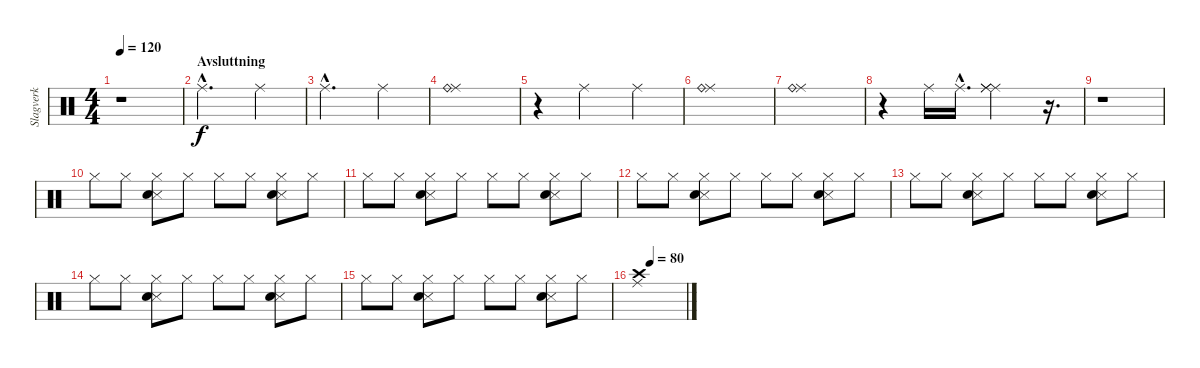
\track ("Slagverk" "Slagverk") {instrument percussion}
\staff {score}
\articulation defaults
\ts (4 4)
\tempo 120
\clef neutral
\ks c
r.1{dy f} |
\section ("" "Avsluttning")
"Ride (middle)"{hac}.2{d} "Ride (middle)".4 |
"Ride (middle)"{hac}.2{d} "Ride (middle)".4 |
("Ride (middle)" "Ride (bell)").1 |
r.4 "Ride (middle)".2 "Ride (middle)".4 |
("Ride (middle)" "Ride (bell)").1 |
("Ride (middle)" "Ride (bell)").1 |
r.4 "Ride (middle)".16 "Ride (middle)"{hac}.16{d} ("Ride (middle)" "Ride (middle)" "Ride (middle)").2 r.16{d} |
r.1 |
"Hi-Hat (closed)".8 "Hi-Hat (closed)".8 ("Hi-Hat (closed)" "Snare (side stick) 3" "Electric Snare (hit)").8 "Hi-Hat (closed)".8 "Hi-Hat (closed)".8 "Hi-Hat (closed)".8 ("Hi-Hat (closed)" "Snare (side stick) 3" "Electric Snare (hit)").8 "Hi-Hat (closed)".8 |
"Hi-Hat (closed)".8 "Hi-Hat (closed)".8 ("Hi-Hat (closed)" "Snare (side stick) 3" "Electric Snare (hit)").8 "Hi-Hat (closed)".8 "Hi-Hat (closed)".8 "Hi-Hat (closed)".8 ("Hi-Hat (closed)" "Snare (side stick) 3" "Electric Snare (hit)").8 "Hi-Hat (closed)".8 |
"Hi-Hat (closed)".8 "Hi-Hat (closed)".8 ("Hi-Hat (closed)" "Snare (side stick) 3" "Electric Snare (hit)").8 "Hi-Hat (closed)".8 "Hi-Hat (closed)".8 "Hi-Hat (closed)".8 ("Hi-Hat (closed)" "Snare (side stick) 3" "Electric Snare (hit)").8 "Hi-Hat (closed)".8 |
"Hi-Hat (closed)".8 "Hi-Hat (closed)".8 ("Hi-Hat (closed)" "Snare (side stick) 3" "Electric Snare (hit)").8 "Hi-Hat (closed)".8 "Hi-Hat (closed)".8 "Hi-Hat (closed)".8 ("Hi-Hat (closed)" "Snare (side stick) 3" "Electric Snare (hit)").8 "Hi-Hat (closed)".8 |
"Hi-Hat (closed)".8 "Hi-Hat (closed)".8 ("Hi-Hat (closed)" "Snare (side stick) 3" "Electric Snare (hit)").8 "Hi-Hat (closed)".8 "Hi-Hat (closed)".8 "Hi-Hat (closed)".8 ("Hi-Hat (closed)" "Snare (side stick) 3" "Electric Snare (hit)").8 "Hi-Hat (closed)".8 |
"Hi-Hat (closed)".8 "Hi-Hat (closed)".8 ("Hi-Hat (closed)" "Snare (side stick) 3" "Electric Snare (hit)").8 "Hi-Hat (closed)".8 "Hi-Hat (closed)".8 "Hi-Hat (closed)".8 ("Hi-Hat (closed)" "Snare (side stick) 3" "Electric Snare (hit)").8 "Hi-Hat (closed)".8 |
\tempo (80 0.25)
("Crash high (hit)" "Ride (middle)").1
